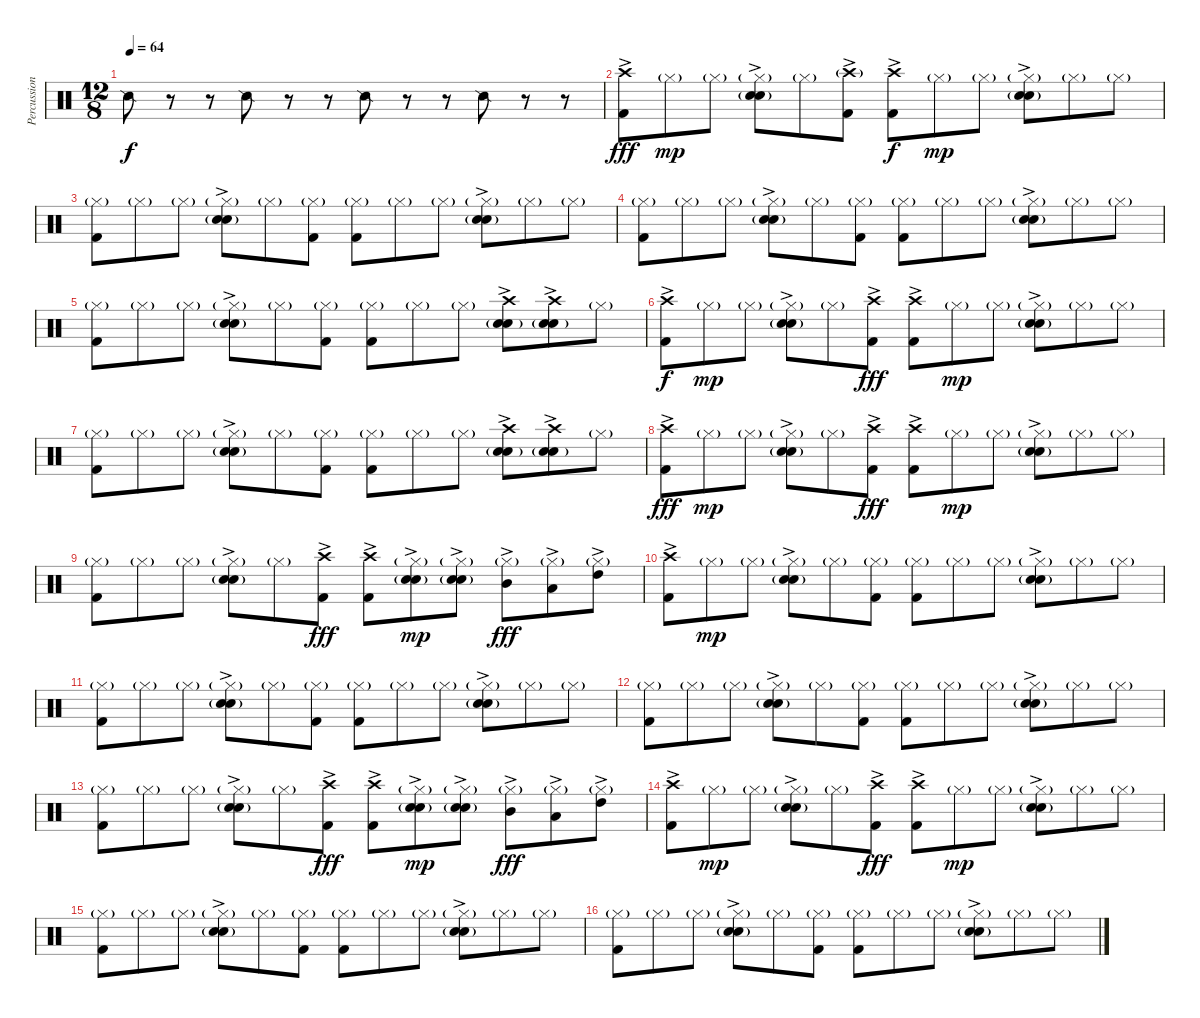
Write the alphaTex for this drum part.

\track ("Percussion" "Percussion") {instrument percussion}
\staff {score}
\articulation defaults
\ts (12 8)
\tempo 64
\clef neutral
\ks c "Snare (side stick) 2".8{dy f}
r.8 r.8 "Snare (side stick) 2".8 r.8 r.8 "Snare (side stick) 2".8 r.8 r.8 "Snare (side stick) 2".8 r.8 r.8 |
("Crash high (hit)"{ac} "Kick (hit) 2").8{dy fff} "Hi-Hat (closed)"{g}.8{dy mp} "Hi-Hat (closed)"{g}.8 ("Hi-Hat (closed)"{g} "Electric Snare (hit)"{ac} "Snare (hit) 2"{g}).8 "Hi-Hat (closed)"{g}.8 ("Crash high (hit)"{g ac} "Kick (hit) 2").8 ("Crash high (hit)"{ac} "Kick (hit) 2").8{dy f} "Hi-Hat (closed)"{g}.8{dy mp} "Hi-Hat (closed)"{g}.8 ("Hi-Hat (closed)"{g} "Electric Snare (hit)"{ac} "Snare (hit) 2"{g}).8 "Hi-Hat (closed)"{g}.8 "Hi-Hat (closed)"{g}.8 |
("Hi-Hat (closed)"{g} "Kick (hit) 2").8 "Hi-Hat (closed)"{g}.8 "Hi-Hat (closed)"{g}.8 ("Hi-Hat (closed)"{g} "Electric Snare (hit)"{ac} "Snare (hit) 2"{g}).8 "Hi-Hat (closed)"{g}.8 ("Hi-Hat (closed)"{g} "Kick (hit) 2").8 ("Hi-Hat (closed)"{g} "Kick (hit) 2").8 "Hi-Hat (closed)"{g}.8 "Hi-Hat (closed)"{g}.8 ("Hi-Hat (closed)"{g} "Electric Snare (hit)"{ac} "Snare (hit) 2"{g}).8 "Hi-Hat (closed)"{g}.8 "Hi-Hat (closed)"{g}.8 |
("Hi-Hat (closed)"{g} "Kick (hit) 2").8 "Hi-Hat (closed)"{g}.8 "Hi-Hat (closed)"{g}.8 ("Hi-Hat (closed)"{g} "Electric Snare (hit)"{ac} "Snare (hit) 2"{g}).8 "Hi-Hat (closed)"{g}.8 ("Hi-Hat (closed)"{g} "Kick (hit) 2").8 ("Hi-Hat (closed)"{g} "Kick (hit) 2").8 "Hi-Hat (closed)"{g}.8 "Hi-Hat (closed)"{g}.8 ("Hi-Hat (closed)"{g} "Electric Snare (hit)"{ac} "Snare (hit) 2"{g}).8 "Hi-Hat (closed)"{g}.8 "Hi-Hat (closed)"{g}.8 |
("Hi-Hat (closed)"{g} "Kick (hit) 2").8 "Hi-Hat (closed)"{g}.8 "Hi-Hat (closed)"{g}.8 ("Hi-Hat (closed)"{g} "Electric Snare (hit)"{ac} "Snare (hit) 2"{g}).8 "Hi-Hat (closed)"{g}.8 ("Hi-Hat (closed)"{g} "Kick (hit) 2").8 ("Hi-Hat (closed)"{g} "Kick (hit) 2").8 "Hi-Hat (closed)"{g}.8 "Hi-Hat (closed)"{g}.8 ("Crash high (hit)"{ac} "Electric Snare (hit)"{ac} "Snare (hit) 2"{g}).8 ("Crash high (hit)" "Electric Snare (hit)"{ac} "Snare (hit) 2"{g}).8 "Hi-Hat (closed)"{g}.8 |
("Crash high (hit)"{ac} "Kick (hit) 2").8{dy f} "Hi-Hat (closed)"{g}.8{dy mp} "Hi-Hat (closed)"{g}.8 ("Hi-Hat (closed)"{g} "Electric Snare (hit)"{ac} "Snare (hit) 2"{g}).8 "Hi-Hat (closed)"{g}.8 ("Crash high (hit)"{ac} "Kick (hit) 2").8{dy fff} ("Crash high (hit)"{ac} "Kick (hit) 2").8 "Hi-Hat (closed)"{g}.8{dy mp} "Hi-Hat (closed)"{g}.8 ("Hi-Hat (closed)"{g} "Electric Snare (hit)"{ac} "Snare (hit) 2"{g}).8 "Hi-Hat (closed)"{g}.8 "Hi-Hat (closed)"{g}.8 |
("Hi-Hat (closed)"{g} "Kick (hit) 2").8 "Hi-Hat (closed)"{g}.8 "Hi-Hat (closed)"{g}.8 ("Hi-Hat (closed)"{g} "Electric Snare (hit)"{ac} "Snare (hit) 2"{g}).8 "Hi-Hat (closed)"{g}.8 ("Hi-Hat (closed)"{g} "Kick (hit) 2").8 ("Hi-Hat (closed)"{g} "Kick (hit) 2").8 "Hi-Hat (closed)"{g}.8 "Hi-Hat (closed)"{g}.8 ("Crash high (hit)"{ac} "Electric Snare (hit)"{ac} "Snare (hit) 2"{g}).8 ("Crash high (hit)"{ac} "Electric Snare (hit)"{ac} "Snare (hit) 2"{g}).8 "Hi-Hat (closed)"{g}.8 |
("Crash high (hit)"{ac} "Kick (hit) 2").8{dy fff} "Hi-Hat (closed)"{g}.8{dy mp} "Hi-Hat (closed)"{g}.8 ("Hi-Hat (closed)"{g} "Electric Snare (hit)"{ac} "Snare (hit) 2"{g}).8 "Hi-Hat (closed)"{g}.8 ("Crash high (hit)"{ac} "Kick (hit) 2").8{dy fff} ("Crash high (hit)"{ac} "Kick (hit) 2").8 "Hi-Hat (closed)"{g}.8{dy mp} "Hi-Hat (closed)"{g}.8 ("Hi-Hat (closed)"{g} "Electric Snare (hit)"{ac} "Snare (hit) 2"{g}).8 "Hi-Hat (closed)"{g}.8 "Hi-Hat (closed)"{g}.8 |
("Hi-Hat (closed)"{g} "Kick (hit) 2").8 "Hi-Hat (closed)"{g}.8 "Hi-Hat (closed)"{g}.8 ("Hi-Hat (closed)"{g} "Electric Snare (hit)"{ac} "Snare (hit) 2"{g}).8 "Hi-Hat (closed)"{g}.8 ("Crash high (hit)"{ac} "Kick (hit) 2").8{dy fff} ("Crash high (hit)"{ac} "Kick (hit) 2").8 ("Hi-Hat (closed)"{g} "Electric Snare (hit)"{ac} "Snare (hit) 2"{g}).8{dy mp} ("Hi-Hat (closed)"{g} "Electric Snare (hit)"{ac} "Snare (hit) 2"{g}).8 ("Hi-Hat (closed)"{g ac} "Mid Tom (hit)"{ac}).8{dy fff} ("Hi-Hat (closed)"{g ac} "Low Tom (hit)"{ac}).8 ("Hi-Hat (closed)"{g} "High Tom (hit)"{ac}).8 |
("Crash high (hit)"{ac} "Kick (hit) 2").8 "Hi-Hat (closed)"{g}.8{dy mp} "Hi-Hat (closed)"{g}.8 ("Hi-Hat (closed)"{g ac} "Electric Snare (hit)"{ac} "Snare (hit) 2"{g}).8 "Hi-Hat (closed)"{g}.8 ("Hi-Hat (closed)"{g} "Kick (hit) 2").8 ("Hi-Hat (closed)"{g} "Kick (hit) 2").8 "Hi-Hat (closed)"{g}.8 "Hi-Hat (closed)"{g}.8 ("Hi-Hat (closed)"{g ac} "Electric Snare (hit)"{ac} "Snare (hit) 2"{g}).8 "Hi-Hat (closed)"{g}.8 "Hi-Hat (closed)"{g}.8 |
("Hi-Hat (closed)"{g} "Kick (hit) 2").8 "Hi-Hat (closed)"{g}.8 "Hi-Hat (closed)"{g}.8 ("Hi-Hat (closed)"{g} "Electric Snare (hit)"{ac} "Snare (hit) 2"{g}).8 "Hi-Hat (closed)"{g}.8 ("Hi-Hat (closed)"{g} "Kick (hit) 2").8 ("Hi-Hat (closed)"{g} "Kick (hit) 2").8 "Hi-Hat (closed)"{g}.8 "Hi-Hat (closed)"{g}.8 ("Hi-Hat (closed)"{g} "Electric Snare (hit)"{ac} "Snare (hit) 2"{g}).8 "Hi-Hat (closed)"{g}.8 "Hi-Hat (closed)"{g}.8 |
("Hi-Hat (closed)"{g} "Kick (hit) 2").8 "Hi-Hat (closed)"{g}.8 "Hi-Hat (closed)"{g}.8 ("Hi-Hat (closed)"{g} "Electric Snare (hit)"{ac} "Snare (hit) 2"{g}).8 "Hi-Hat (closed)"{g}.8 ("Hi-Hat (closed)"{g} "Kick (hit) 2").8 ("Hi-Hat (closed)"{g} "Kick (hit) 2").8 "Hi-Hat (closed)"{g}.8 "Hi-Hat (closed)"{g}.8 ("Hi-Hat (closed)"{g} "Electric Snare (hit)"{ac} "Snare (hit) 2"{g}).8 "Hi-Hat (closed)"{g}.8 "Hi-Hat (closed)"{g}.8 |
("Hi-Hat (closed)"{g} "Kick (hit) 2").8 "Hi-Hat (closed)"{g}.8 "Hi-Hat (closed)"{g}.8 ("Hi-Hat (closed)"{g} "Electric Snare (hit)"{ac} "Snare (hit) 2"{g}).8 "Hi-Hat (closed)"{g}.8 ("Crash high (hit)"{ac} "Kick (hit) 2").8{dy fff} ("Crash high (hit)"{ac} "Kick (hit) 2").8 ("Hi-Hat (closed)"{g} "Electric Snare (hit)"{ac} "Snare (hit) 2"{g}).8{dy mp} ("Hi-Hat (closed)"{g} "Electric Snare (hit)"{ac} "Snare (hit) 2"{g}).8 ("Hi-Hat (closed)"{g ac} "Mid Tom (hit)"{ac}).8{dy fff} ("Hi-Hat (closed)"{g} "Low Tom (hit)"{ac}).8 ("Hi-Hat (closed)"{g} "High Tom (hit)"{ac}).8 |
("Crash high (hit)"{ac} "Kick (hit) 2").8 "Hi-Hat (closed)"{g}.8{dy mp} "Hi-Hat (closed)"{g}.8 ("Hi-Hat (closed)"{g ac} "Electric Snare (hit)"{ac} "Snare (hit) 2"{g}).8 "Hi-Hat (closed)"{g}.8 ("Crash high (hit)"{ac} "Kick (hit) 2").8{dy fff} ("Crash high (hit)"{ac} "Kick (hit) 2").8 "Hi-Hat (closed)"{g}.8{dy mp} "Hi-Hat (closed)"{g}.8 ("Hi-Hat (closed)"{g} "Electric Snare (hit)"{ac} "Snare (hit) 2"{g}).8 "Hi-Hat (closed)"{g}.8 "Hi-Hat (closed)"{g}.8 |
("Hi-Hat (closed)"{g} "Kick (hit) 2").8 "Hi-Hat (closed)"{g}.8 "Hi-Hat (closed)"{g}.8 ("Hi-Hat (closed)"{g} "Electric Snare (hit)"{ac} "Snare (hit) 2"{g}).8 "Hi-Hat (closed)"{g}.8 ("Hi-Hat (closed)"{g} "Kick (hit) 2").8 ("Hi-Hat (closed)"{g} "Kick (hit) 2").8 "Hi-Hat (closed)"{g}.8 "Hi-Hat (closed)"{g}.8 ("Hi-Hat (closed)"{g} "Electric Snare (hit)"{ac} "Snare (hit) 2"{g}).8 "Hi-Hat (closed)"{g}.8 "Hi-Hat (closed)"{g}.8 |
("Hi-Hat (closed)"{g} "Kick (hit) 2").8 "Hi-Hat (closed)"{g}.8 "Hi-Hat (closed)"{g}.8 ("Hi-Hat (closed)"{g} "Electric Snare (hit)"{ac} "Snare (hit) 2"{g}).8 "Hi-Hat (closed)"{g}.8 ("Hi-Hat (closed)"{g} "Kick (hit) 2").8 ("Hi-Hat (closed)"{g} "Kick (hit) 2").8 "Hi-Hat (closed)"{g}.8 "Hi-Hat (closed)"{g}.8 ("Hi-Hat (closed)"{g} "Electric Snare (hit)"{ac} "Snare (hit) 2"{g}).8 "Hi-Hat (closed)"{g}.8 "Hi-Hat (closed)"{g}.8
